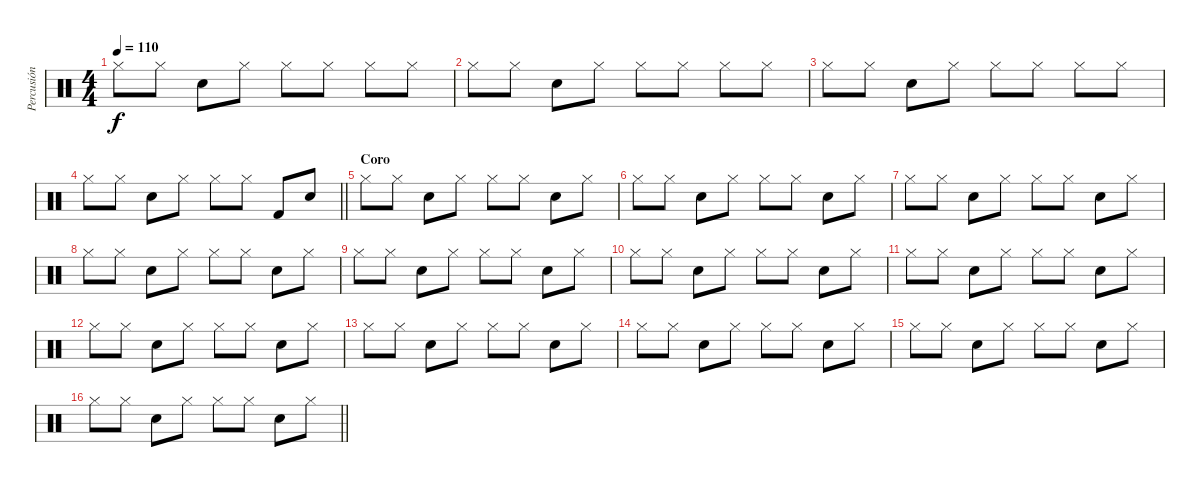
\track ("Percusión" "Percusión") {instrument percussion}
\staff {score}
\articulation defaults
\ts (4 4)
\tempo 110
\clef neutral
\ks c "Hi-Hat (closed)".8{dy f} "Hi-Hat (closed)".8 "Snare (hit) 2".8 "Hi-Hat (closed)".8 "Hi-Hat (closed)".8 "Hi-Hat (closed)".8 "Hi-Hat (closed)".8 "Hi-Hat (closed)".8
|
"Hi-Hat (closed)".8 "Hi-Hat (closed)".8 "Snare (hit) 2".8 "Hi-Hat (closed)".8 "Hi-Hat (closed)".8 "Hi-Hat (closed)".8 "Hi-Hat (closed)".8 "Hi-Hat (closed)".8 |
"Hi-Hat (closed)".8 "Hi-Hat (closed)".8 "Snare (hit) 2".8 "Hi-Hat (closed)".8 "Hi-Hat (closed)".8 "Hi-Hat (closed)".8 "Hi-Hat (closed)".8 "Hi-Hat (closed)".8 |
\barLineRight lightlight "Hi-Hat (closed)".8 "Hi-Hat (closed)".8 "Snare (hit) 2".8 "Hi-Hat (closed)".8 "Hi-Hat (closed)".8 "Hi-Hat (closed)".8 "Kick (hit) 2".8 "Snare (hit) 2".8
|
\section ("" "Coro")
"Hi-Hat (closed)".8 "Hi-Hat (closed)".8 "Snare (hit) 2".8 "Hi-Hat (closed)".8 "Hi-Hat (closed)".8 "Hi-Hat (closed)".8 "Snare (hit) 2".8 "Hi-Hat (closed)".8 |
"Hi-Hat (closed)".8 "Hi-Hat (closed)".8 "Snare (hit) 2".8 "Hi-Hat (closed)".8 "Hi-Hat (closed)".8 "Hi-Hat (closed)".8 "Snare (hit) 2".8 "Hi-Hat (closed)".8 |
"Hi-Hat (closed)".8 "Hi-Hat (closed)".8 "Snare (hit) 2".8 "Hi-Hat (closed)".8 "Hi-Hat (closed)".8 "Hi-Hat (closed)".8 "Snare (hit) 2".8 "Hi-Hat (closed)".8 |
"Hi-Hat (closed)".8 "Hi-Hat (closed)".8 "Snare (hit) 2".8 "Hi-Hat (closed)".8 "Hi-Hat (closed)".8 "Hi-Hat (closed)".8 "Snare (hit) 2".8 "Hi-Hat (closed)".8 |
"Hi-Hat (closed)".8 "Hi-Hat (closed)".8 "Snare (hit) 2".8 "Hi-Hat (closed)".8 "Hi-Hat (closed)".8 "Hi-Hat (closed)".8 "Snare (hit) 2".8 "Hi-Hat (closed)".8 |
"Hi-Hat (closed)".8 "Hi-Hat (closed)".8 "Snare (hit) 2".8 "Hi-Hat (closed)".8 "Hi-Hat (closed)".8 "Hi-Hat (closed)".8 "Snare (hit) 2".8 "Hi-Hat (closed)".8 |
"Hi-Hat (closed)".8 "Hi-Hat (closed)".8 "Snare (hit) 2".8 "Hi-Hat (closed)".8 "Hi-Hat (closed)".8 "Hi-Hat (closed)".8 "Snare (hit) 2".8 "Hi-Hat (closed)".8 |
"Hi-Hat (closed)".8 "Hi-Hat (closed)".8 "Snare (hit) 2".8 "Hi-Hat (closed)".8 "Hi-Hat (closed)".8 "Hi-Hat (closed)".8 "Snare (hit) 2".8 "Hi-Hat (closed)".8 |
"Hi-Hat (closed)".8 "Hi-Hat (closed)".8 "Snare (hit) 2".8 "Hi-Hat (closed)".8 "Hi-Hat (closed)".8 "Hi-Hat (closed)".8 "Snare (hit) 2".8 "Hi-Hat (closed)".8 |
"Hi-Hat (closed)".8 "Hi-Hat (closed)".8 "Snare (hit) 2".8 "Hi-Hat (closed)".8 "Hi-Hat (closed)".8 "Hi-Hat (closed)".8 "Snare (hit) 2".8 "Hi-Hat (closed)".8 |
"Hi-Hat (closed)".8 "Hi-Hat (closed)".8 "Snare (hit) 2".8 "Hi-Hat (closed)".8 "Hi-Hat (closed)".8 "Hi-Hat (closed)".8 "Snare (hit) 2".8 "Hi-Hat (closed)".8 |
\barLineRight lightlight "Hi-Hat (closed)".8 "Hi-Hat (closed)".8 "Snare (hit) 2".8 "Hi-Hat (closed)".8 "Hi-Hat (closed)".8 "Hi-Hat (closed)".8 "Snare (hit) 2".8 "Hi-Hat (closed)".8
